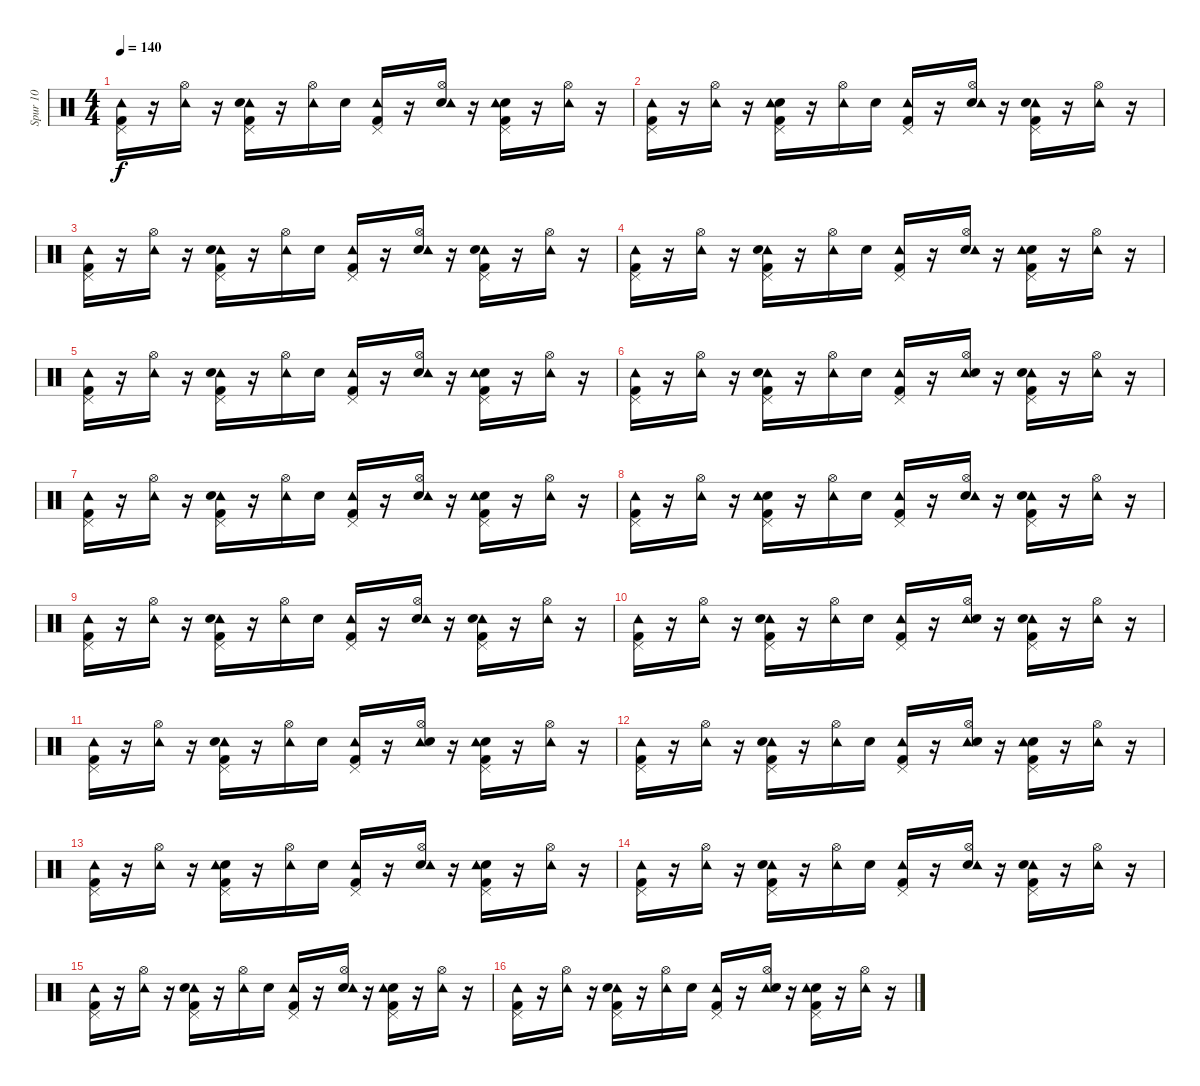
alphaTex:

\track ("Spur 10" "Spur 10") {instrument percussion}
\staff {score}
\articulation defaults
\ts (4 4)
\tempo 140
\clef neutral
\ks c
("Tambourine (hit)" "Kick (hit) 2" "Pedal Hi-Hat (hit)").16{dy f} r.16 ("Tambourine (hit)" "Hi-Hat (open)").16 r.16 ("Tambourine (hit)" "Pedal Hi-Hat (hit)" "Kick (hit) 2" "Snare (hit) 2").16 r.16 ("Tambourine (hit)" "Hi-Hat (open)").16 "Snare (hit) 2".16 ("Pedal Hi-Hat (hit)" "Tambourine (hit)" "Kick (hit) 2").16 r.16 ("Hi-Hat (open)" "Snare (hit) 2" "Tambourine (hit)").16 r.16 ("Snare (hit) 2" "Kick (hit) 2" "Pedal Hi-Hat (hit)" "Tambourine (hit)").16 r.16 ("Hi-Hat (open)" "Tambourine (hit)").16 r.16 |
("Kick (hit) 2" "Tambourine (hit)" "Pedal Hi-Hat (hit)").16 r.16 ("Hi-Hat (open)" "Tambourine (hit)").16 r.16 ("Pedal Hi-Hat (hit)" "Snare (hit) 2" "Tambourine (hit)" "Kick (hit) 2").16 r.16 ("Hi-Hat (open)" "Tambourine (hit)").16 "Snare (hit) 2".16 ("Tambourine (hit)" "Kick (hit) 2" "Pedal Hi-Hat (hit)").16 r.16 ("Snare (hit) 2" "Tambourine (hit)" "Hi-Hat (open)").16 r.16 ("Kick (hit) 2" "Tambourine (hit)" "Snare (hit) 2" "Pedal Hi-Hat (hit)").16 r.16 ("Hi-Hat (open)" "Tambourine (hit)").16 r.16 |
("Tambourine (hit)" "Pedal Hi-Hat (hit)" "Kick (hit) 2").16 r.16 ("Tambourine (hit)" "Hi-Hat (open)").16 r.16 ("Tambourine (hit)" "Pedal Hi-Hat (hit)" "Snare (hit) 2" "Kick (hit) 2").16 r.16 ("Tambourine (hit)" "Hi-Hat (open)").16 "Snare (hit) 2".16 ("Pedal Hi-Hat (hit)" "Tambourine (hit)" "Kick (hit) 2").16 r.16 ("Snare (hit) 2" "Tambourine (hit)" "Hi-Hat (open)").16 r.16 ("Tambourine (hit)" "Snare (hit) 2" "Pedal Hi-Hat (hit)" "Kick (hit) 2").16 r.16 ("Tambourine (hit)" "Hi-Hat (open)").16 r.16 |
("Tambourine (hit)" "Kick (hit) 2" "Pedal Hi-Hat (hit)").16 r.16 ("Hi-Hat (open)" "Tambourine (hit)").16 r.16 ("Pedal Hi-Hat (hit)" "Kick (hit) 2" "Tambourine (hit)" "Snare (hit) 2").16 r.16 ("Tambourine (hit)" "Hi-Hat (open)").16 "Snare (hit) 2".16 ("Tambourine (hit)" "Pedal Hi-Hat (hit)" "Kick (hit) 2").16 r.16 ("Snare (hit) 2" "Tambourine (hit)" "Hi-Hat (open)").16 r.16 ("Snare (hit) 2" "Kick (hit) 2" "Pedal Hi-Hat (hit)" "Tambourine (hit)").16 r.16 ("Tambourine (hit)" "Hi-Hat (open)").16 r.16 |
("Pedal Hi-Hat (hit)" "Tambourine (hit)" "Kick (hit) 2").16 r.16 ("Tambourine (hit)" "Hi-Hat (open)").16 r.16 ("Pedal Hi-Hat (hit)" "Kick (hit) 2" "Tambourine (hit)" "Snare (hit) 2").16 r.16 ("Tambourine (hit)" "Hi-Hat (open)").16 "Snare (hit) 2".16 ("Kick (hit) 2" "Pedal Hi-Hat (hit)" "Tambourine (hit)").16 r.16 ("Snare (hit) 2" "Tambourine (hit)" "Hi-Hat (open)").16 r.16 ("Snare (hit) 2" "Pedal Hi-Hat (hit)" "Kick (hit) 2" "Tambourine (hit)").16 r.16 ("Tambourine (hit)" "Hi-Hat (open)").16 r.16 |
("Pedal Hi-Hat (hit)" "Kick (hit) 2" "Tambourine (hit)").16 r.16 ("Tambourine (hit)" "Hi-Hat (open)").16 r.16 ("Kick (hit) 2" "Tambourine (hit)" "Pedal Hi-Hat (hit)" "Snare (hit) 2").16 r.16 ("Tambourine (hit)" "Hi-Hat (open)").16 "Snare (hit) 2".16 ("Tambourine (hit)" "Pedal Hi-Hat (hit)" "Kick (hit) 2").16 r.16 ("Tambourine (hit)" "Snare (hit) 2" "Hi-Hat (open)").16 r.16 ("Pedal Hi-Hat (hit)" "Kick (hit) 2" "Tambourine (hit)" "Snare (hit) 2").16 r.16 ("Tambourine (hit)" "Hi-Hat (open)").16 r.16 |
("Pedal Hi-Hat (hit)" "Kick (hit) 2" "Tambourine (hit)").16 r.16 ("Tambourine (hit)" "Hi-Hat (open)").16 r.16 ("Kick (hit) 2" "Tambourine (hit)" "Pedal Hi-Hat (hit)" "Snare (hit) 2").16 r.16 ("Hi-Hat (open)" "Tambourine (hit)").16 "Snare (hit) 2".16 ("Tambourine (hit)" "Kick (hit) 2" "Pedal Hi-Hat (hit)").16 r.16 ("Hi-Hat (open)" "Snare (hit) 2" "Tambourine (hit)").16 r.16 ("Snare (hit) 2" "Tambourine (hit)" "Kick (hit) 2" "Pedal Hi-Hat (hit)").16 r.16 ("Hi-Hat (open)" "Tambourine (hit)").16 r.16 |
("Tambourine (hit)" "Pedal Hi-Hat (hit)" "Kick (hit) 2").16 r.16 ("Tambourine (hit)" "Hi-Hat (open)").16 r.16 ("Snare (hit) 2" "Tambourine (hit)" "Kick (hit) 2" "Pedal Hi-Hat (hit)").16 r.16 ("Hi-Hat (open)" "Tambourine (hit)").16 "Snare (hit) 2".16 ("Pedal Hi-Hat (hit)" "Kick (hit) 2" "Tambourine (hit)").16 r.16 ("Snare (hit) 2" "Hi-Hat (open)" "Tambourine (hit)").16 r.16 ("Kick (hit) 2" "Pedal Hi-Hat (hit)" "Tambourine (hit)" "Snare (hit) 2").16 r.16 ("Tambourine (hit)" "Hi-Hat (open)").16 r.16 |
("Tambourine (hit)" "Pedal Hi-Hat (hit)" "Kick (hit) 2").16 r.16 ("Hi-Hat (open)" "Tambourine (hit)").16 r.16 ("Kick (hit) 2" "Tambourine (hit)" "Snare (hit) 2" "Pedal Hi-Hat (hit)").16 r.16 ("Tambourine (hit)" "Hi-Hat (open)").16 "Snare (hit) 2".16 ("Kick (hit) 2" "Pedal Hi-Hat (hit)" "Tambourine (hit)").16 r.16 ("Hi-Hat (open)" "Snare (hit) 2" "Tambourine (hit)").16 r.16 ("Pedal Hi-Hat (hit)" "Tambourine (hit)" "Snare (hit) 2" "Kick (hit) 2").16 r.16 ("Tambourine (hit)" "Hi-Hat (open)").16 r.16 |
("Tambourine (hit)" "Pedal Hi-Hat (hit)" "Kick (hit) 2").16 r.16 ("Hi-Hat (open)" "Tambourine (hit)").16 r.16 ("Kick (hit) 2" "Tambourine (hit)" "Pedal Hi-Hat (hit)" "Snare (hit) 2").16 r.16 ("Tambourine (hit)" "Hi-Hat (open)").16 "Snare (hit) 2".16 ("Pedal Hi-Hat (hit)" "Tambourine (hit)" "Kick (hit) 2").16 r.16 ("Hi-Hat (open)" "Tambourine (hit)" "Snare (hit) 2").16 r.16 ("Tambourine (hit)" "Kick (hit) 2" "Pedal Hi-Hat (hit)" "Snare (hit) 2").16 r.16 ("Tambourine (hit)" "Hi-Hat (open)").16 r.16 |
("Tambourine (hit)" "Pedal Hi-Hat (hit)" "Kick (hit) 2").16 r.16 ("Tambourine (hit)" "Hi-Hat (open)").16 r.16 ("Tambourine (hit)" "Pedal Hi-Hat (hit)" "Snare (hit) 2" "Kick (hit) 2").16 r.16 ("Hi-Hat (open)" "Tambourine (hit)").16 "Snare (hit) 2".16 ("Pedal Hi-Hat (hit)" "Tambourine (hit)" "Kick (hit) 2").16 r.16 ("Hi-Hat (open)" "Tambourine (hit)" "Snare (hit) 2").16 r.16 ("Snare (hit) 2" "Kick (hit) 2" "Tambourine (hit)" "Pedal Hi-Hat (hit)").16 r.16 ("Tambourine (hit)" "Hi-Hat (open)").16 r.16 |
("Tambourine (hit)" "Kick (hit) 2" "Pedal Hi-Hat (hit)").16 r.16 ("Hi-Hat (open)" "Tambourine (hit)").16 r.16 ("Tambourine (hit)" "Pedal Hi-Hat (hit)" "Kick (hit) 2" "Snare (hit) 2").16 r.16 ("Tambourine (hit)" "Hi-Hat (open)").16 "Snare (hit) 2".16 ("Pedal Hi-Hat (hit)" "Tambourine (hit)" "Kick (hit) 2").16 r.16 ("Hi-Hat (open)" "Tambourine (hit)" "Snare (hit) 2").16 r.16 ("Snare (hit) 2" "Kick (hit) 2" "Tambourine (hit)" "Pedal Hi-Hat (hit)").16 r.16 ("Hi-Hat (open)" "Tambourine (hit)").16 r.16 |
("Kick (hit) 2" "Tambourine (hit)" "Pedal Hi-Hat (hit)").16 r.16 ("Tambourine (hit)" "Hi-Hat (open)").16 r.16 ("Pedal Hi-Hat (hit)" "Kick (hit) 2" "Snare (hit) 2" "Tambourine (hit)").16 r.16 ("Hi-Hat (open)" "Tambourine (hit)").16 "Snare (hit) 2".16 ("Pedal Hi-Hat (hit)" "Kick (hit) 2" "Tambourine (hit)").16 r.16 ("Snare (hit) 2" "Tambourine (hit)" "Hi-Hat (open)").16 r.16 ("Kick (hit) 2" "Snare (hit) 2" "Tambourine (hit)" "Pedal Hi-Hat (hit)").16 r.16 ("Tambourine (hit)" "Hi-Hat (open)").16 r.16 |
("Tambourine (hit)" "Kick (hit) 2" "Pedal Hi-Hat (hit)").16 r.16 ("Tambourine (hit)" "Hi-Hat (open)").16 r.16 ("Tambourine (hit)" "Kick (hit) 2" "Snare (hit) 2" "Pedal Hi-Hat (hit)").16 r.16 ("Hi-Hat (open)" "Tambourine (hit)").16 "Snare (hit) 2".16 ("Pedal Hi-Hat (hit)" "Tambourine (hit)" "Kick (hit) 2").16 r.16 ("Snare (hit) 2" "Tambourine (hit)" "Hi-Hat (open)").16 r.16 ("Pedal Hi-Hat (hit)" "Kick (hit) 2" "Tambourine (hit)" "Snare (hit) 2").16 r.16 ("Tambourine (hit)" "Hi-Hat (open)").16 r.16 |
("Pedal Hi-Hat (hit)" "Kick (hit) 2" "Tambourine (hit)").16 r.16 ("Hi-Hat (open)" "Tambourine (hit)").16 r.16 ("Kick (hit) 2" "Tambourine (hit)" "Pedal Hi-Hat (hit)" "Snare (hit) 2").16 r.16 ("Hi-Hat (open)" "Tambourine (hit)").16 "Snare (hit) 2".16 ("Tambourine (hit)" "Pedal Hi-Hat (hit)" "Kick (hit) 2").16 r.16 ("Snare (hit) 2" "Hi-Hat (open)" "Tambourine (hit)").16 r.16 ("Snare (hit) 2" "Tambourine (hit)" "Kick (hit) 2" "Pedal Hi-Hat (hit)").16 r.16 ("Hi-Hat (open)" "Tambourine (hit)").16 r.16 |
("Tambourine (hit)" "Pedal Hi-Hat (hit)" "Kick (hit) 2").16 r.16 ("Tambourine (hit)" "Hi-Hat (open)").16 r.16 ("Tambourine (hit)" "Kick (hit) 2" "Pedal Hi-Hat (hit)" "Snare (hit) 2").16 r.16 ("Tambourine (hit)" "Hi-Hat (open)").16 "Snare (hit) 2".16 ("Pedal Hi-Hat (hit)" "Kick (hit) 2" "Tambourine (hit)").16 r.16 ("Tambourine (hit)" "Snare (hit) 2" "Hi-Hat (open)").16 r.16 ("Pedal Hi-Hat (hit)" "Snare (hit) 2" "Kick (hit) 2" "Tambourine (hit)").16 r.16 ("Tambourine (hit)" "Hi-Hat (open)").16 r.16
